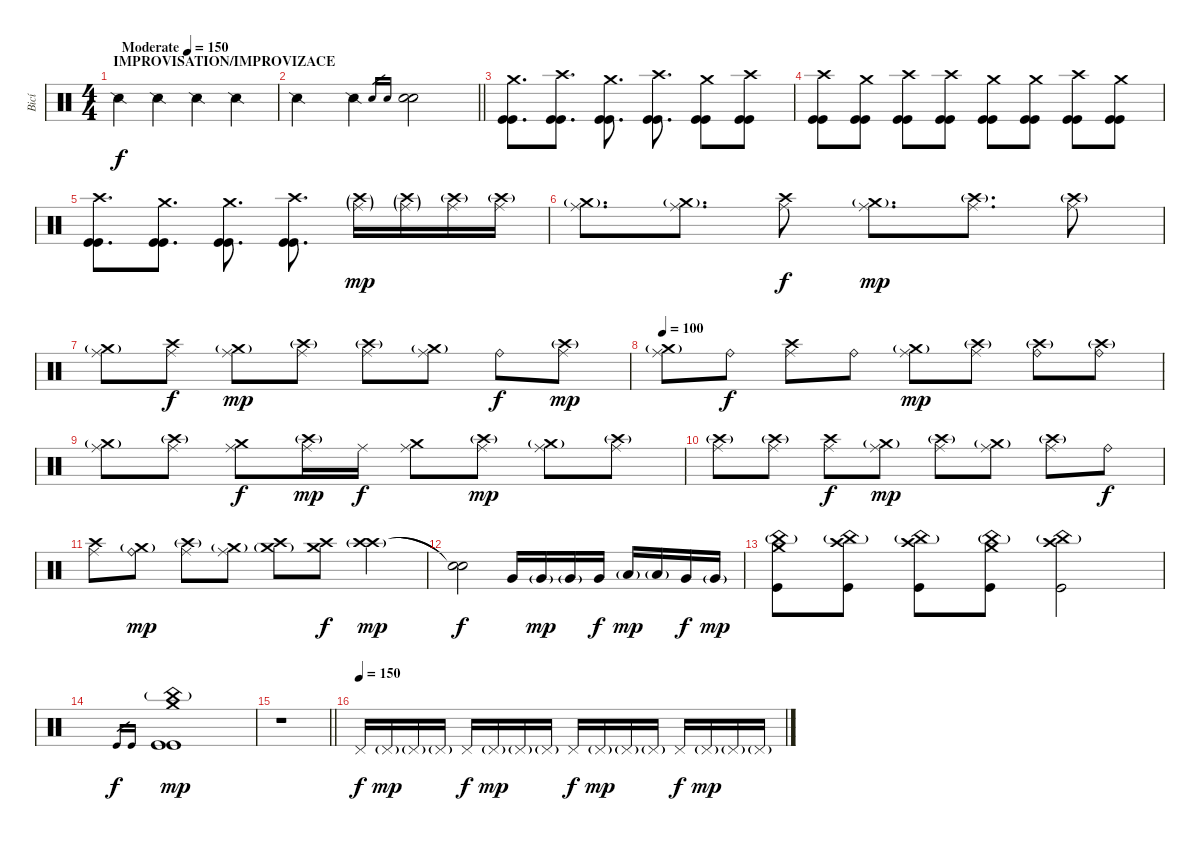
\track ("Bicí" "Bicí") {instrument percussion}
\staff {score}
\articulation defaults
\ts (4 4)
\section ("" "IMPROVISATION/IMPROVIZACE")
\tempo (150 "Moderate")
\clef neutral
\ks c "Snare (side stick) 2".4{dy f} "Snare (side stick) 2".4 "Snare (side stick) 2".4 "Snare (side stick) 2".4
|
\barLineRight lightlight "Snare (side stick) 2".4 "Snare (side stick) 2".4 "Electric Snare (hit)".16{gr} "Electric Snare (hit)".16{gr}
("Electric Snare (hit)" "Electric Snare (hit)").2 |
\section ("" "")
("Crash medium (hit)" "Kick (hit)" "Kick (hit)").8{d} ("Crash high (hit)" "Kick (hit)" "Kick (hit)").8{d} ("Crash medium (hit)" "Kick (hit)" "Kick (hit)").8{d} ("Crash high (hit)" "Kick (hit)" "Kick (hit)").8{d} ("Crash medium (hit)" "Kick (hit)" "Kick (hit)").8 ("Crash high (hit)" "Kick (hit)" "Kick (hit)").8 |
("Crash high (hit)" "Kick (hit)" "Kick (hit)").8 ("Crash medium (hit)" "Kick (hit)" "Kick (hit)").8 ("Crash high (hit)" "Kick (hit)" "Kick (hit)").8 ("Crash high (hit)" "Kick (hit)" "Kick (hit)").8 ("Crash medium (hit)" "Kick (hit)" "Kick (hit)").8 ("Crash medium (hit)" "Kick (hit)" "Kick (hit)").8 ("Crash high (hit)" "Kick (hit)" "Kick (hit)").8 ("Crash medium (hit)" "Kick (hit)" "Kick (hit)").8 |
("Crash high (hit)" "Kick (hit)" "Kick (hit)").8{d} ("Crash medium (hit)" "Kick (hit)" "Kick (hit)").8{d} ("Crash medium (hit)" "Kick (hit)" "Kick (hit)").8{d} ("Crash high (hit)" "Kick (hit)" "Kick (hit)").8{d} ("Crash high (hit)"{g} "Ride (middle)"{g}).16{dy mp} ("Crash high (hit)"{g} "Ride (middle)"{g}).16 ("Crash high (hit)"{g} "Ride (middle)").16 ("Crash high (hit)"{g} "Ride (middle)").16 |
("Crash medium (hit)"{g} "Ride (middle)").8{d} ("Crash medium (hit)"{g} "Ride (middle)").8{d} ("Crash high (hit)" "Ride (middle)").8{dy f} ("Crash medium (hit)"{g} "Ride (middle)").8{d dy mp} ("Crash high (hit)"{g} "Ride (middle)").8{d} ("Crash high (hit)"{g} "Ride (middle)").8 |
("Crash medium (hit)"{g} "Ride (middle)").8 ("Crash high (hit)" "Ride (middle)").8{dy f} ("Crash medium (hit)"{g} "Ride (middle)").8{dy mp} ("Crash high (hit)"{g} "Ride (middle)").8 ("Crash high (hit)"{g} "Ride (middle)").8 ("Crash medium (hit)"{g} "Ride (middle)").8 "Ride (bell)".8{dy f} ("Crash high (hit)"{g} "Ride (middle)").8{dy mp} |
\tempo 100
("Crash medium (hit)"{g} "Ride (middle)").8 "Ride (bell)".8{dy f} ("Crash high (hit)" "Ride (middle)").8 "Ride (bell)".8 ("Crash medium (hit)"{g} "Ride (middle)").8{dy mp} ("Crash high (hit)"{g} "Ride (middle)").8 ("Crash high (hit)"{g} "Ride (bell)").8 ("Crash high (hit)"{g} "Ride (bell)").8 |
("Crash medium (hit)"{g} "Ride (middle)").8 ("Crash high (hit)"{g} "Ride (middle)").8 ("Crash medium (hit)" "Ride (middle)").8{dy f} ("Crash high (hit)"{g} "Ride (middle)").16{dy mp} "Ride (middle)".16{dy f} ("Crash medium (hit)" "Ride (middle)").8 ("Crash high (hit)"{g} "Ride (middle)").8{dy mp} ("Crash medium (hit)"{g} "Ride (middle)").8 ("Crash high (hit)"{g} "Ride (middle)").8 |
("Crash high (hit)"{g} "Ride (middle)").8 ("Crash high (hit)"{g} "Ride (middle)").8 ("Crash high (hit)" "Ride (middle)").8{dy f} ("Crash medium (hit)"{g} "Ride (middle)").8{dy mp} ("Crash high (hit)"{g} "Ride (middle)").8 ("Crash medium (hit)"{g} "Ride (middle)").8 ("Crash high (hit)"{g} "Ride (middle)").8 "Ride (bell)".8{dy f} |
("Crash high (hit)" "Ride (middle)").8 ("Crash medium (hit)"{g} "Ride (bell)").8{dy mp} ("Crash high (hit)"{g} "Ride (middle)").8 ("Crash medium (hit)"{g} "Ride (middle)").8 ("Crash high (hit)" "Crash medium (hit)"{g}).8 ("Crash high (hit)" "Crash medium (hit)").8{dy f} ("Crash high (hit)"{g} "Crash high (hit)").4{dy mp} |
("Snare (hit)"{t} "Snare (hit)"{t}).2{dy f} "Very Low Tom (hit)".16 "Very Low Tom (hit)"{g}.16{dy mp} "Very Low Tom (hit)"{g}.16 "Very Low Tom (hit)".16{dy f} "Low Floor Tom (hit)"{g}.16{dy mp} "Low Floor Tom (hit)"{g}.16 "Very Low Tom (hit)".16{dy f} "Very Low Tom (hit)"{g}.16{dy mp} |
("Crash medium (hit)" "China (hit)"{g} "Kick (hit)").8 ("Crash high (hit)" "China (hit)"{g} "Kick (hit)").8 ("Crash high (hit)" "China (hit)"{g} "Kick (hit)").8 ("Crash medium (hit)" "China (hit)"{g} "Kick (hit)").8 ("Crash high (hit)" "China (hit)"{g} "Kick (hit)").2 |
"Kick (hit)".16{gr dy f} "Kick (hit)".16{gr} ("Crash medium (hit)" "China (hit)"{g} "Kick (hit)" "Kick (hit)").1{dy mp} |
\barLineRight lightlight
r.1 |
\section ("" "")
\tempo (150)
"Pedal Hi-Hat (hit)".16{dy f} "Pedal Hi-Hat (hit)"{g}.16{dy mp} "Pedal Hi-Hat (hit)"{g}.16 "Pedal Hi-Hat (hit)"{g}.16 "Pedal Hi-Hat (hit)".16{dy f} "Pedal Hi-Hat (hit)"{g}.16{dy mp} "Pedal Hi-Hat (hit)"{g}.16 "Pedal Hi-Hat (hit)"{g}.16 "Pedal Hi-Hat (hit)".16{dy f} "Pedal Hi-Hat (hit)"{g}.16{dy mp} "Pedal Hi-Hat (hit)"{g}.16 "Pedal Hi-Hat (hit)"{g}.16 "Pedal Hi-Hat (hit)".16{dy f} "Pedal Hi-Hat (hit)"{g}.16{dy mp} "Pedal Hi-Hat (hit)"{g}.16 "Pedal Hi-Hat (hit)"{g}.16
